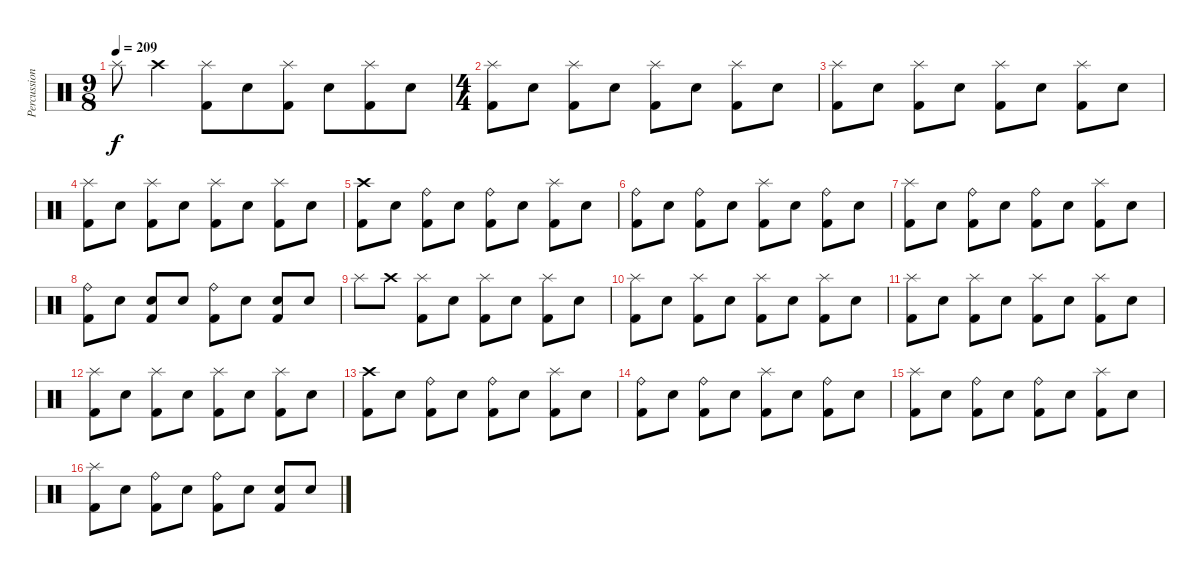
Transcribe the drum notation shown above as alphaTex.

\track ("Percussion" "Percussion") {instrument percussion}
\staff {score}
\articulation defaults
\ts (9 8)
\section ("" "")
\tempo 209
\clef neutral
\ks c "Splash (hit)".8{dy f} "Crash high (hit)".4
("Splash (hit)" "Kick (hit) 2").8 "Electric Snare (hit)".8 ("Splash (hit)" "Kick (hit) 2").8 "Electric Snare (hit)".8 ("Splash (hit)" "Kick (hit) 2").8 "Electric Snare (hit)".8 |
\ts (4 4)
("Splash (hit)" "Kick (hit) 2").8 "Electric Snare (hit)".8 ("Splash (hit)" "Kick (hit) 2").8 "Electric Snare (hit)".8 ("Splash (hit)" "Kick (hit) 2").8 "Electric Snare (hit)".8 ("Splash (hit)" "Kick (hit) 2").8 "Electric Snare (hit)".8 |
("Splash (hit)" "Kick (hit) 2").8 "Electric Snare (hit)".8 ("Splash (hit)" "Kick (hit) 2").8 "Electric Snare (hit)".8 ("Splash (hit)" "Kick (hit) 2").8 "Electric Snare (hit)".8 ("Splash (hit)" "Kick (hit) 2").8 "Electric Snare (hit)".8 |
("Splash (hit)" "Kick (hit) 2").8 "Electric Snare (hit)".8 ("Splash (hit)" "Kick (hit) 2").8 "Electric Snare (hit)".8 ("Splash (hit)" "Kick (hit) 2").8 "Electric Snare (hit)".8 ("Splash (hit)" "Kick (hit) 2").8 "Electric Snare (hit)".8 |
("Crash high (hit)" "Kick (hit) 2").8 "Electric Snare (hit)".8 ("Ride (bell)" "Kick (hit) 2").8 "Electric Snare (hit)".8 ("Ride (bell)" "Kick (hit) 2").8 "Electric Snare (hit)".8 ("Splash (hit)" "Kick (hit) 2").8 "Electric Snare (hit)".8 |
("Ride (bell)" "Kick (hit) 2").8 "Electric Snare (hit)".8 ("Ride (bell)" "Kick (hit) 2").8 "Electric Snare (hit)".8 ("Splash (hit)" "Kick (hit) 2").8 "Electric Snare (hit)".8 ("Ride (bell)" "Kick (hit) 2").8 "Electric Snare (hit)".8 |
("Splash (hit)" "Kick (hit) 2").8 "Electric Snare (hit)".8 ("Ride (bell)" "Kick (hit) 2").8 "Electric Snare (hit)".8 ("Ride (bell)" "Kick (hit) 2").8 "Electric Snare (hit)".8 ("Splash (hit)" "Kick (hit) 2").8 "Electric Snare (hit)".8 |
("Ride (bell)" "Kick (hit) 2").8 "Electric Snare (hit)".8 ("Electric Snare (hit)" "Kick (hit) 2").8 "Electric Snare (hit)".8 ("Ride (bell)" "Kick (hit) 2").8 "Electric Snare (hit)".8 ("Electric Snare (hit)" "Kick (hit) 2").8 "Electric Snare (hit)".8 |
"Splash (hit)".8 "Crash high (hit)".8 ("Splash (hit)" "Kick (hit) 2").8 "Electric Snare (hit)".8 ("Splash (hit)" "Kick (hit) 2").8 "Electric Snare (hit)".8 ("Splash (hit)" "Kick (hit) 2").8 "Electric Snare (hit)".8 |
("Splash (hit)" "Kick (hit) 2").8 "Electric Snare (hit)".8 ("Splash (hit)" "Kick (hit) 2").8 "Electric Snare (hit)".8 ("Splash (hit)" "Kick (hit) 2").8 "Electric Snare (hit)".8 ("Splash (hit)" "Kick (hit) 2").8 "Electric Snare (hit)".8 |
("Splash (hit)" "Kick (hit) 2").8 "Electric Snare (hit)".8 ("Splash (hit)" "Kick (hit) 2").8 "Electric Snare (hit)".8 ("Splash (hit)" "Kick (hit) 2").8 "Electric Snare (hit)".8 ("Splash (hit)" "Kick (hit) 2").8 "Electric Snare (hit)".8 |
("Splash (hit)" "Kick (hit) 2").8 "Electric Snare (hit)".8 ("Splash (hit)" "Kick (hit) 2").8 "Electric Snare (hit)".8 ("Splash (hit)" "Kick (hit) 2").8 "Electric Snare (hit)".8 ("Splash (hit)" "Kick (hit) 2").8 "Electric Snare (hit)".8 |
("Crash high (hit)" "Kick (hit) 2").8 "Electric Snare (hit)".8 ("Ride (bell)" "Kick (hit) 2").8 "Electric Snare (hit)".8 ("Ride (bell)" "Kick (hit) 2").8 "Electric Snare (hit)".8 ("Splash (hit)" "Kick (hit) 2").8 "Electric Snare (hit)".8 |
("Ride (bell)" "Kick (hit) 2").8 "Electric Snare (hit)".8 ("Ride (bell)" "Kick (hit) 2").8 "Electric Snare (hit)".8 ("Splash (hit)" "Kick (hit) 2").8 "Electric Snare (hit)".8 ("Ride (bell)" "Kick (hit) 2").8 "Electric Snare (hit)".8 |
("Splash (hit)" "Kick (hit) 2").8 "Electric Snare (hit)".8 ("Ride (bell)" "Kick (hit) 2").8 "Electric Snare (hit)".8 ("Ride (bell)" "Kick (hit) 2").8 "Electric Snare (hit)".8 ("Splash (hit)" "Kick (hit) 2").8 "Electric Snare (hit)".8 |
("Splash (hit)" "Kick (hit) 2").8 "Electric Snare (hit)".8 ("Ride (bell)" "Kick (hit) 2").8 "Electric Snare (hit)".8 ("Ride (bell)" "Kick (hit) 2").8 "Electric Snare (hit)".8 ("Electric Snare (hit)" "Kick (hit) 2").8 "Electric Snare (hit)".8
